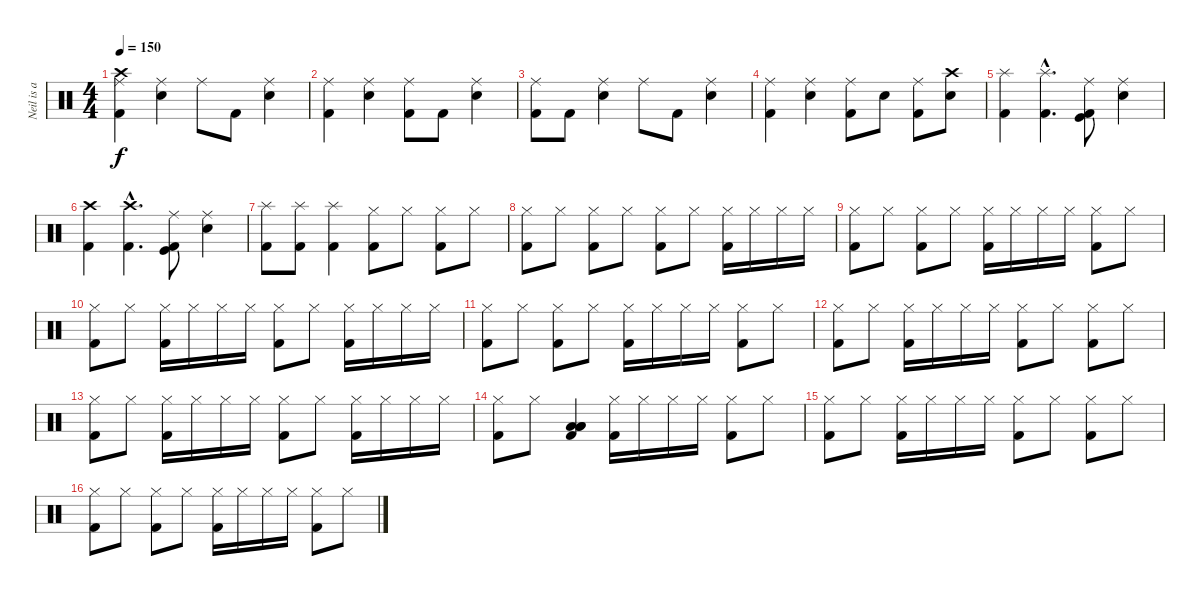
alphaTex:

\track ("Neil is a Drum God!!!" "Neil is a ") {instrument percussion}
\staff {score}
\articulation defaults
\ts (4 4)
\tempo 150
\clef neutral
\ks c
("Crash high (hit)" "Ride (middle)" "Kick (hit) 2").4{dy f} ("Ride (middle)" "Snare (hit) 2").4 "Ride (middle)".8 "Kick (hit) 2".8 ("Ride (middle)" "Snare (hit) 2").4 |
("Ride (middle)" "Kick (hit) 2").4 ("Ride (middle)" "Snare (hit) 2").4 ("Ride (middle)" "Kick (hit) 2").8 "Kick (hit) 2".8 ("Ride (middle)" "Snare (hit) 2").4 |
("Ride (middle)" "Kick (hit) 2").8 "Kick (hit) 2".8 ("Ride (middle)" "Snare (hit) 2").4 "Ride (middle)".8 "Kick (hit) 2".8 ("Ride (middle)" "Snare (hit) 2").4 |
("Ride (middle)" "Kick (hit) 2").4 ("Ride (middle)" "Snare (hit) 2").4 ("Ride (middle)" "Kick (hit) 2").8 "Snare (hit) 2".8 ("Ride (middle)" "Kick (hit) 2").8 ("Crash high (hit)" "Snare (hit) 2").8 |
("Splash (hit)" "Kick (hit) 2").4 ("Splash (hit)"{hac} "Kick (hit) 2"{hac}).4{d} ("Ride (middle)" "Kick (hit)" "Kick (hit) 2").8 ("Ride (middle)" "Snare (hit) 2").4 |
("Crash high (hit)" "Kick (hit) 2").4 ("Crash high (hit)"{hac} "Kick (hit) 2"{hac}).4{d} ("Ride (middle)" "Kick (hit)" "Kick (hit) 2").8 ("Ride (middle)" "Snare (hit) 2").4 |
("Splash (hit)" "Kick (hit) 2").8 ("Splash (hit)" "Kick (hit) 2").8 ("Splash (hit)" "Kick (hit) 2").4 ("Hi-Hat (closed)" "Kick (hit) 2").8 "Hi-Hat (closed)".8 ("Hi-Hat (closed)" "Kick (hit) 2").8 "Hi-Hat (closed)".8 |
("Hi-Hat (closed)" "Kick (hit) 2").8 "Hi-Hat (closed)".8 ("Hi-Hat (closed)" "Kick (hit) 2").8 "Hi-Hat (closed)".8 ("Hi-Hat (closed)" "Kick (hit) 2").8 "Hi-Hat (closed)".8 ("Hi-Hat (closed)" "Kick (hit) 2").16 "Hi-Hat (closed)".16 "Hi-Hat (closed)".16 "Hi-Hat (closed)".16 |
("Hi-Hat (closed)" "Kick (hit) 2").8 "Hi-Hat (closed)".8 ("Hi-Hat (closed)" "Kick (hit) 2").8 "Hi-Hat (closed)".8 ("Hi-Hat (closed)" "Kick (hit) 2").16 "Hi-Hat (closed)".16 "Hi-Hat (closed)".16 "Hi-Hat (closed)".16 ("Hi-Hat (closed)" "Kick (hit) 2").8 "Hi-Hat (closed)".8 |
("Hi-Hat (closed)" "Kick (hit) 2").8 "Hi-Hat (closed)".8 ("Hi-Hat (closed)" "Kick (hit) 2").16 "Hi-Hat (closed)".16 "Hi-Hat (closed)".16 "Hi-Hat (closed)".16 ("Hi-Hat (closed)" "Kick (hit) 2").8 "Hi-Hat (closed)".8 ("Hi-Hat (closed)" "Kick (hit) 2").16 "Hi-Hat (closed)".16 "Hi-Hat (closed)".16 "Hi-Hat (closed)".16 |
("Hi-Hat (closed)" "Kick (hit) 2").8 "Hi-Hat (closed)".8 ("Hi-Hat (closed)" "Kick (hit) 2").8 "Hi-Hat (closed)".8 ("Hi-Hat (closed)" "Kick (hit) 2").16 "Hi-Hat (closed)".16 "Hi-Hat (closed)".16 "Hi-Hat (closed)".16 ("Hi-Hat (closed)" "Kick (hit) 2").8 "Hi-Hat (closed)".8 |
("Hi-Hat (closed)" "Kick (hit) 2").8 "Hi-Hat (closed)".8 ("Hi-Hat (closed)" "Kick (hit) 2").16 "Hi-Hat (closed)".16 "Hi-Hat (closed)".16 "Hi-Hat (closed)".16 ("Hi-Hat (closed)" "Kick (hit) 2").8 "Hi-Hat (closed)".8 ("Hi-Hat (closed)" "Kick (hit) 2").8 "Hi-Hat (closed)".8 |
("Hi-Hat (closed)" "Kick (hit) 2").8 "Hi-Hat (closed)".8 ("Hi-Hat (closed)" "Kick (hit) 2").16 "Hi-Hat (closed)".16 "Hi-Hat (closed)".16 "Hi-Hat (closed)".16 ("Hi-Hat (closed)" "Kick (hit) 2").8 "Hi-Hat (closed)".8 ("Hi-Hat (closed)" "Kick (hit) 2").16 "Hi-Hat (closed)".16 "Hi-Hat (closed)".16 "Hi-Hat (closed)".16 |
("Hi-Hat (closed)" "Kick (hit) 2").8 "Hi-Hat (closed)".8 ("Low Tom (hit)" "Low Tom (hit)" "Low Tom (hit)" "Kick (hit) 2").4 ("Hi-Hat (closed)" "Kick (hit) 2").16 "Hi-Hat (closed)".16 "Hi-Hat (closed)".16 "Hi-Hat (closed)".16 ("Hi-Hat (closed)" "Kick (hit) 2").8 "Hi-Hat (closed)".8 |
("Hi-Hat (closed)" "Kick (hit) 2").8 "Hi-Hat (closed)".8 ("Hi-Hat (closed)" "Kick (hit) 2").16 "Hi-Hat (closed)".16 "Hi-Hat (closed)".16 "Hi-Hat (closed)".16 ("Hi-Hat (closed)" "Kick (hit) 2").8 "Hi-Hat (closed)".8 ("Hi-Hat (closed)" "Kick (hit) 2").8 "Hi-Hat (closed)".8 |
("Hi-Hat (closed)" "Kick (hit) 2").8 "Hi-Hat (closed)".8 ("Hi-Hat (closed)" "Kick (hit) 2").8 "Hi-Hat (closed)".8 ("Hi-Hat (closed)" "Kick (hit) 2").16 "Hi-Hat (closed)".16 "Hi-Hat (closed)".16 "Hi-Hat (closed)".16 ("Hi-Hat (closed)" "Kick (hit) 2").8 "Hi-Hat (closed)".8
